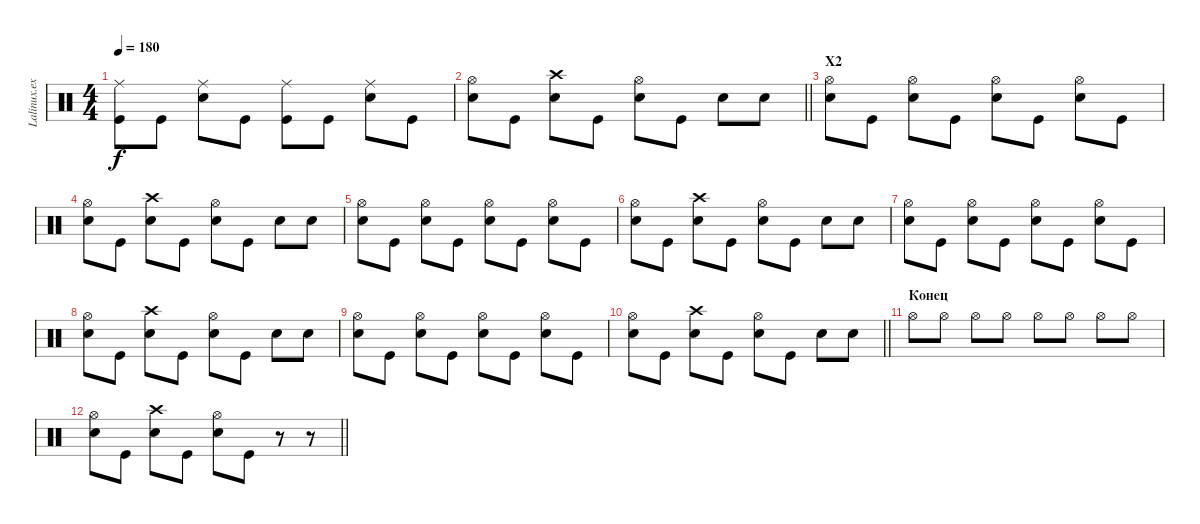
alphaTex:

\track ("Lalinux.exe" "Lalinux.ex") {instrument percussion}
\staff {score}
\articulation defaults
\ts (4 4)
\tempo 180
\clef neutral
\ks c
("Ride (middle)" "Kick (hit)").8{dy f} "Kick (hit)".8 ("Ride (middle)" "Electric Snare (hit)").8 "Kick (hit)".8 ("Ride (middle)" "Kick (hit)").8 "Kick (hit)".8 ("Ride (middle)" "Electric Snare (hit)").8 "Kick (hit)".8 |
\barLineRight lightlight
("Hi-Hat (open)" "Electric Snare (hit)").8 "Kick (hit)".8 ("Crash high (hit)" "Electric Snare (hit)").8 "Kick (hit)".8 ("Hi-Hat (open)" "Electric Snare (hit)").8 "Kick (hit)".8 "Electric Snare (hit)".8 "Electric Snare (hit)".8 |
\section ("" "X2")
("Hi-Hat (open)" "Electric Snare (hit)").8 "Kick (hit)".8 ("Hi-Hat (open)" "Electric Snare (hit)").8 "Kick (hit)".8 ("Hi-Hat (open)" "Electric Snare (hit)").8 "Kick (hit)".8 ("Hi-Hat (open)" "Electric Snare (hit)").8 "Kick (hit)".8 |
("Hi-Hat (open)" "Electric Snare (hit)").8 "Kick (hit)".8 ("Crash high (hit)" "Electric Snare (hit)").8 "Kick (hit)".8 ("Hi-Hat (open)" "Electric Snare (hit)").8 "Kick (hit)".8 "Electric Snare (hit)".8 "Electric Snare (hit)".8 |
("Hi-Hat (open)" "Electric Snare (hit)").8 "Kick (hit)".8 ("Hi-Hat (open)" "Electric Snare (hit)").8 "Kick (hit)".8 ("Hi-Hat (open)" "Electric Snare (hit)").8 "Kick (hit)".8 ("Hi-Hat (open)" "Electric Snare (hit)").8 "Kick (hit)".8 |
("Hi-Hat (open)" "Electric Snare (hit)").8 "Kick (hit)".8 ("Crash high (hit)" "Electric Snare (hit)").8 "Kick (hit)".8 ("Hi-Hat (open)" "Electric Snare (hit)").8 "Kick (hit)".8 "Electric Snare (hit)".8 "Electric Snare (hit)".8 |
("Hi-Hat (open)" "Electric Snare (hit)").8 "Kick (hit)".8 ("Hi-Hat (open)" "Electric Snare (hit)").8 "Kick (hit)".8 ("Hi-Hat (open)" "Electric Snare (hit)").8 "Kick (hit)".8 ("Hi-Hat (open)" "Electric Snare (hit)").8 "Kick (hit)".8 |
("Hi-Hat (open)" "Electric Snare (hit)").8 "Kick (hit)".8 ("Crash high (hit)" "Electric Snare (hit)").8 "Kick (hit)".8 ("Hi-Hat (open)" "Electric Snare (hit)").8 "Kick (hit)".8 "Electric Snare (hit)".8 "Electric Snare (hit)".8 |
("Hi-Hat (open)" "Electric Snare (hit)").8 "Kick (hit)".8 ("Hi-Hat (open)" "Electric Snare (hit)").8 "Kick (hit)".8 ("Hi-Hat (open)" "Electric Snare (hit)").8 "Kick (hit)".8 ("Hi-Hat (open)" "Electric Snare (hit)").8 "Kick (hit)".8 |
\barLineRight lightlight
("Hi-Hat (open)" "Electric Snare (hit)").8 "Kick (hit)".8 ("Crash high (hit)" "Electric Snare (hit)").8 "Kick (hit)".8 ("Hi-Hat (open)" "Electric Snare (hit)").8 "Kick (hit)".8 "Electric Snare (hit)".8 "Electric Snare (hit)".8 |
\section ("" "Конец")
"Hi-Hat (open)".8 "Hi-Hat (open)".8 "Hi-Hat (open)".8 "Hi-Hat (open)".8 "Hi-Hat (open)".8 "Hi-Hat (open)".8 "Hi-Hat (open)".8 "Hi-Hat (open)".8 |
\barLineRight lightlight
("Hi-Hat (open)" "Electric Snare (hit)").8 "Kick (hit)".8 ("Crash high (hit)" "Electric Snare (hit)").8 "Kick (hit)".8 ("Hi-Hat (open)" "Electric Snare (hit)").8 "Kick (hit)".8 r.8 r.8
